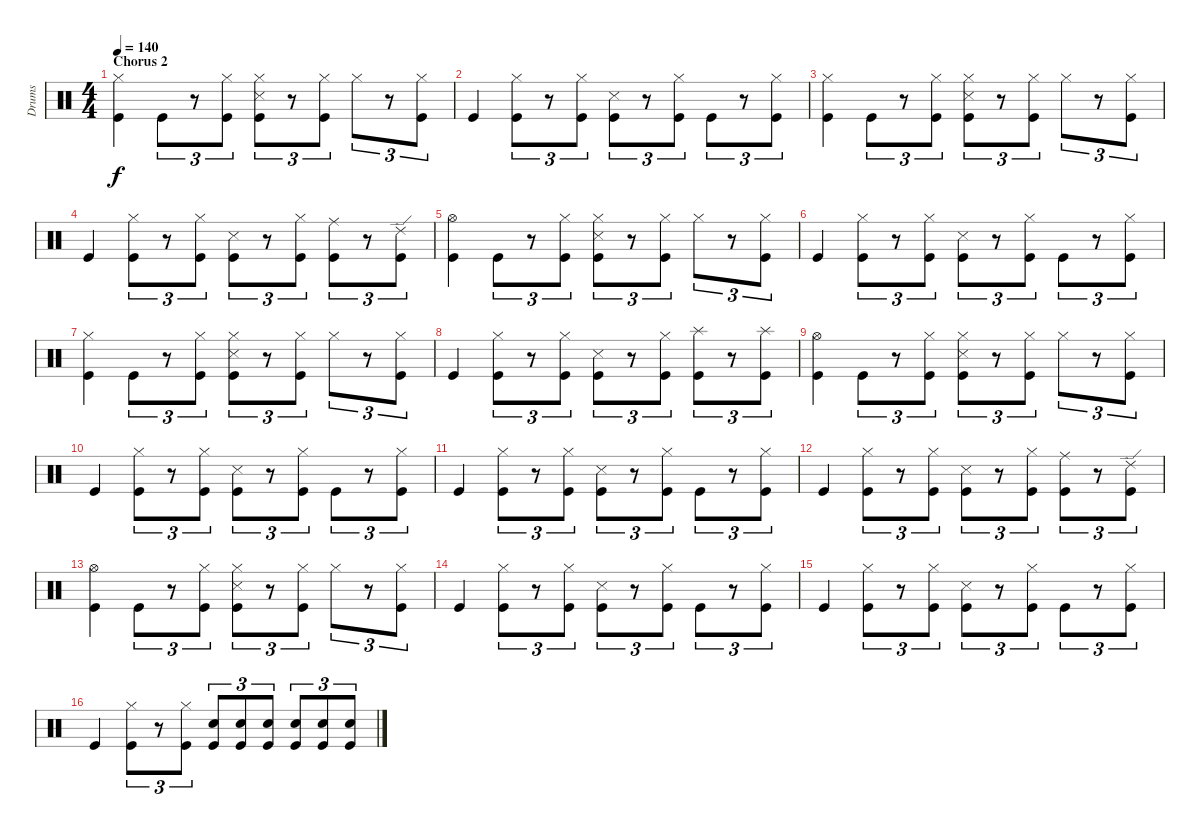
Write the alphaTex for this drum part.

\track ("Drums" "Drums") {instrument percussion}
\staff {score}
\articulation defaults
\ts (4 4)
\section ("" "Chorus 2")
\tempo 140
\clef neutral
\ks c
("Hi-Hat (closed)" "Kick (hit)").4{dy f} "Kick (hit)".8{tu (3 2)} r.8{tu (3 2)} ("Hi-Hat (closed)" "Kick (hit)").8{tu (3 2)} ("Hi-Hat (closed)" "Kick (hit)" "Snare (side stick) 3").8{tu (3 2)} r.8{tu (3 2)} ("Hi-Hat (closed)" "Kick (hit)").8{tu (3 2)} "Hi-Hat (closed)".8{tu (3 2)} r.8{tu (3 2)} ("Hi-Hat (closed)" "Kick (hit)").8{tu (3 2)} |
"Kick (hit)".4 ("Hi-Hat (closed)" "Kick (hit)").8{tu (3 2)} r.8{tu (3 2)} ("Hi-Hat (closed)" "Kick (hit)").8{tu (3 2)} ("Kick (hit)" "Snare (side stick) 3").8{tu (3 2)} r.8{tu (3 2)} ("Hi-Hat (closed)" "Kick (hit)").8{tu (3 2)} "Kick (hit)".8{tu (3 2)} r.8{tu (3 2)} ("Hi-Hat (closed)" "Kick (hit)").8{tu (3 2)} |
("Hi-Hat (closed)" "Kick (hit)").4 "Kick (hit)".8{tu (3 2)} r.8{tu (3 2)} ("Hi-Hat (closed)" "Kick (hit)").8{tu (3 2)} ("Hi-Hat (closed)" "Kick (hit)" "Snare (side stick) 3").8{tu (3 2)} r.8{tu (3 2)} ("Hi-Hat (closed)" "Kick (hit)").8{tu (3 2)} "Hi-Hat (closed)".8{tu (3 2)} r.8{tu (3 2)} ("Hi-Hat (closed)" "Kick (hit)").8{tu (3 2)} |
"Kick (hit)".4 ("Hi-Hat (closed)" "Kick (hit)").8{tu (3 2)} r.8{tu (3 2)} ("Hi-Hat (closed)" "Kick (hit)").8{tu (3 2)} ("Kick (hit)" "Snare (side stick) 3").8{tu (3 2)} r.8{tu (3 2)} ("Hi-Hat (closed)" "Kick (hit)").8{tu (3 2)} ("Ride (middle)" "Kick (hit)").8{tu (3 2)} r.8{tu (3 2)} ("Ride (edge) 2" "Kick (hit)").8{tu (3 2)} |
("Hi-Hat (open)" "Kick (hit)").4 "Kick (hit)".8{tu (3 2)} r.8{tu (3 2)} ("Hi-Hat (closed)" "Kick (hit)").8{tu (3 2)} ("Hi-Hat (closed)" "Kick (hit)" "Snare (side stick) 3").8{tu (3 2)} r.8{tu (3 2)} ("Hi-Hat (closed)" "Kick (hit)").8{tu (3 2)} "Hi-Hat (closed)".8{tu (3 2)} r.8{tu (3 2)} ("Hi-Hat (closed)" "Kick (hit)").8{tu (3 2)} |
"Kick (hit)".4 ("Hi-Hat (closed)" "Kick (hit)").8{tu (3 2)} r.8{tu (3 2)} ("Hi-Hat (closed)" "Kick (hit)").8{tu (3 2)} ("Kick (hit)" "Snare (side stick) 3").8{tu (3 2)} r.8{tu (3 2)} ("Hi-Hat (closed)" "Kick (hit)").8{tu (3 2)} "Kick (hit)".8{tu (3 2)} r.8{tu (3 2)} ("Hi-Hat (closed)" "Kick (hit)").8{tu (3 2)} |
("Hi-Hat (closed)" "Kick (hit)").4 "Kick (hit)".8{tu (3 2)} r.8{tu (3 2)} ("Hi-Hat (closed)" "Kick (hit)").8{tu (3 2)} ("Hi-Hat (closed)" "Kick (hit)" "Snare (side stick) 3").8{tu (3 2)} r.8{tu (3 2)} ("Hi-Hat (closed)" "Kick (hit)").8{tu (3 2)} "Hi-Hat (closed)".8{tu (3 2)} r.8{tu (3 2)} ("Hi-Hat (closed)" "Kick (hit)").8{tu (3 2)} |
"Kick (hit)".4 ("Hi-Hat (closed)" "Kick (hit)").8{tu (3 2)} r.8{tu (3 2)} ("Hi-Hat (closed)" "Kick (hit)").8{tu (3 2)} ("Kick (hit)" "Snare (side stick) 3").8{tu (3 2)} r.8{tu (3 2)} ("Hi-Hat (closed)" "Kick (hit)").8{tu (3 2)} ("Splash (hit)" "Kick (hit)").8{tu (3 2)} r.8{tu (3 2)} ("Splash (hit)" "Kick (hit)").8{tu (3 2)} |
("Hi-Hat (open)" "Kick (hit)").4 "Kick (hit)".8{tu (3 2)} r.8{tu (3 2)} ("Hi-Hat (closed)" "Kick (hit)").8{tu (3 2)} ("Hi-Hat (closed)" "Kick (hit)" "Snare (side stick) 3").8{tu (3 2)} r.8{tu (3 2)} ("Hi-Hat (closed)" "Kick (hit)").8{tu (3 2)} "Hi-Hat (closed)".8{tu (3 2)} r.8{tu (3 2)} ("Hi-Hat (closed)" "Kick (hit)").8{tu (3 2)} |
"Kick (hit)".4 ("Hi-Hat (closed)" "Kick (hit)").8{tu (3 2)} r.8{tu (3 2)} ("Hi-Hat (closed)" "Kick (hit)").8{tu (3 2)} ("Kick (hit)" "Snare (side stick) 3").8{tu (3 2)} r.8{tu (3 2)} ("Hi-Hat (closed)" "Kick (hit)").8{tu (3 2)} "Kick (hit)".8{tu (3 2)} r.8{tu (3 2)} ("Hi-Hat (closed)" "Kick (hit)").8{tu (3 2)} |
"Kick (hit)".4 ("Hi-Hat (closed)" "Kick (hit)").8{tu (3 2)} r.8{tu (3 2)} ("Hi-Hat (closed)" "Kick (hit)").8{tu (3 2)} ("Kick (hit)" "Snare (side stick) 3").8{tu (3 2)} r.8{tu (3 2)} ("Hi-Hat (closed)" "Kick (hit)").8{tu (3 2)} "Kick (hit)".8{tu (3 2)} r.8{tu (3 2)} ("Hi-Hat (closed)" "Kick (hit)").8{tu (3 2)} |
"Kick (hit)".4 ("Hi-Hat (closed)" "Kick (hit)").8{tu (3 2)} r.8{tu (3 2)} ("Hi-Hat (closed)" "Kick (hit)").8{tu (3 2)} ("Kick (hit)" "Snare (side stick) 3").8{tu (3 2)} r.8{tu (3 2)} ("Hi-Hat (closed)" "Kick (hit)").8{tu (3 2)} ("Ride (middle)" "Kick (hit)").8{tu (3 2)} r.8{tu (3 2)} ("Ride (edge) 2" "Kick (hit)").8{tu (3 2)} |
("Hi-Hat (open)" "Kick (hit)").4 "Kick (hit)".8{tu (3 2)} r.8{tu (3 2)} ("Hi-Hat (closed)" "Kick (hit)").8{tu (3 2)} ("Hi-Hat (closed)" "Kick (hit)" "Snare (side stick) 3").8{tu (3 2)} r.8{tu (3 2)} ("Hi-Hat (closed)" "Kick (hit)").8{tu (3 2)} "Hi-Hat (closed)".8{tu (3 2)} r.8{tu (3 2)} ("Hi-Hat (closed)" "Kick (hit)").8{tu (3 2)} |
"Kick (hit)".4 ("Hi-Hat (closed)" "Kick (hit)").8{tu (3 2)} r.8{tu (3 2)} ("Hi-Hat (closed)" "Kick (hit)").8{tu (3 2)} ("Kick (hit)" "Snare (side stick) 3").8{tu (3 2)} r.8{tu (3 2)} ("Hi-Hat (closed)" "Kick (hit)").8{tu (3 2)} "Kick (hit)".8{tu (3 2)} r.8{tu (3 2)} ("Hi-Hat (closed)" "Kick (hit)").8{tu (3 2)} |
"Kick (hit)".4 ("Hi-Hat (closed)" "Kick (hit)").8{tu (3 2)} r.8{tu (3 2)} ("Hi-Hat (closed)" "Kick (hit)").8{tu (3 2)} ("Kick (hit)" "Snare (side stick) 3").8{tu (3 2)} r.8{tu (3 2)} ("Hi-Hat (closed)" "Kick (hit)").8{tu (3 2)} "Kick (hit)".8{tu (3 2)} r.8{tu (3 2)} ("Hi-Hat (closed)" "Kick (hit)").8{tu (3 2)} |
"Kick (hit)".4 ("Hi-Hat (closed)" "Kick (hit)").8{tu (3 2)} r.8{tu (3 2)} ("Hi-Hat (closed)" "Kick (hit)").8{tu (3 2)} ("Kick (hit)" "Electric Snare (hit)").8{tu (3 2)} ("Kick (hit)" "Electric Snare (hit)").8{tu (3 2)} ("Kick (hit)" "Electric Snare (hit)").8{tu (3 2)} ("Kick (hit)" "Electric Snare (hit)").8{tu (3 2)} ("Kick (hit)" "Electric Snare (hit)").8{tu (3 2)} ("Kick (hit)" "Electric Snare (hit)").8{tu (3 2)}
